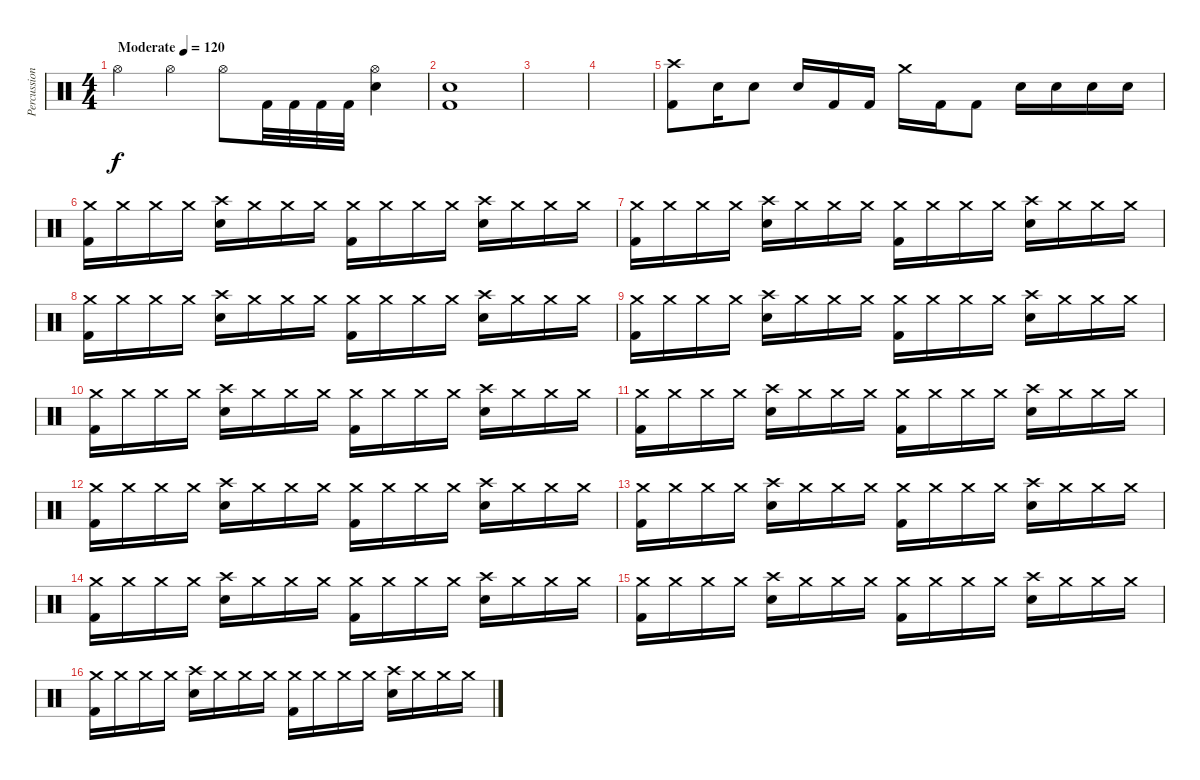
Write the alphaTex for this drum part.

\track ("Percussion" "Percussion") {instrument percussion}
\staff {score}
\articulation defaults
\ts (4 4)
\tempo (120 "Moderate")
\clef neutral
\ks c "Hi-Hat (open)".4{dy f} "Hi-Hat (open)".4 "Hi-Hat (open)".8 "Kick (hit) 2".32 "Kick (hit) 2".32 "Kick (hit) 2".32 "Kick (hit) 2".32
("Hi-Hat (open)" "Snare (hit) 2").4 |
("Snare (hit) 2" "Kick (hit) 2").1 |
|
|
("Crash high (hit)" "Kick (hit) 2").8 "Electric Snare (hit)".16 "Electric Snare (hit)".8 "Electric Snare (hit)".16 "Kick (hit) 2".16 "Kick (hit) 2".16 "Crash medium (hit)".16 "Kick (hit) 2".16 "Kick (hit) 2".8 "Electric Snare (hit)".16 "Electric Snare (hit)".16 "Electric Snare (hit)".16 "Electric Snare (hit)".16 |
("Crash medium (hit)" "Kick (hit) 2").16 "Crash medium (hit)".16 "Crash medium (hit)".16 "Crash medium (hit)".16 ("Crash high (hit)" "Electric Snare (hit)").16 "Crash medium (hit)".16 "Crash medium (hit)".16 "Crash medium (hit)".16 ("Crash medium (hit)" "Kick (hit) 2").16 "Crash medium (hit)".16 "Crash medium (hit)".16 "Crash medium (hit)".16 ("Crash high (hit)" "Electric Snare (hit)").16 "Crash medium (hit)".16 "Crash medium (hit)".16 "Crash medium (hit)".16 |
("Crash medium (hit)" "Kick (hit) 2").16 "Crash medium (hit)".16 "Crash medium (hit)".16 "Crash medium (hit)".16 ("Crash high (hit)" "Electric Snare (hit)").16 "Crash medium (hit)".16 "Crash medium (hit)".16 "Crash medium (hit)".16 ("Crash medium (hit)" "Kick (hit) 2").16 "Crash medium (hit)".16 "Crash medium (hit)".16 "Crash medium (hit)".16 ("Crash high (hit)" "Electric Snare (hit)").16 "Crash medium (hit)".16 "Crash medium (hit)".16 "Crash medium (hit)".16 |
("Crash medium (hit)" "Kick (hit) 2").16 "Crash medium (hit)".16 "Crash medium (hit)".16 "Crash medium (hit)".16 ("Crash high (hit)" "Electric Snare (hit)").16 "Crash medium (hit)".16 "Crash medium (hit)".16 "Crash medium (hit)".16 ("Crash medium (hit)" "Kick (hit) 2").16 "Crash medium (hit)".16 "Crash medium (hit)".16 "Crash medium (hit)".16 ("Crash high (hit)" "Electric Snare (hit)").16 "Crash medium (hit)".16 "Crash medium (hit)".16 "Crash medium (hit)".16 |
("Crash medium (hit)" "Kick (hit) 2").16 "Crash medium (hit)".16 "Crash medium (hit)".16 "Crash medium (hit)".16 ("Crash high (hit)" "Electric Snare (hit)").16 "Crash medium (hit)".16 "Crash medium (hit)".16 "Crash medium (hit)".16 ("Crash medium (hit)" "Kick (hit) 2").16 "Crash medium (hit)".16 "Crash medium (hit)".16 "Crash medium (hit)".16 ("Crash high (hit)" "Electric Snare (hit)").16 "Crash medium (hit)".16 "Crash medium (hit)".16 "Crash medium (hit)".16 |
("Crash medium (hit)" "Kick (hit) 2").16 "Crash medium (hit)".16 "Crash medium (hit)".16 "Crash medium (hit)".16 ("Crash high (hit)" "Electric Snare (hit)").16 "Crash medium (hit)".16 "Crash medium (hit)".16 "Crash medium (hit)".16 ("Crash medium (hit)" "Kick (hit) 2").16 "Crash medium (hit)".16 "Crash medium (hit)".16 "Crash medium (hit)".16 ("Crash high (hit)" "Electric Snare (hit)").16 "Crash medium (hit)".16 "Crash medium (hit)".16 "Crash medium (hit)".16 |
("Crash medium (hit)" "Kick (hit) 2").16 "Crash medium (hit)".16 "Crash medium (hit)".16 "Crash medium (hit)".16 ("Crash high (hit)" "Electric Snare (hit)").16 "Crash medium (hit)".16 "Crash medium (hit)".16 "Crash medium (hit)".16 ("Crash medium (hit)" "Kick (hit) 2").16 "Crash medium (hit)".16 "Crash medium (hit)".16 "Crash medium (hit)".16 ("Crash high (hit)" "Electric Snare (hit)").16 "Crash medium (hit)".16 "Crash medium (hit)".16 "Crash medium (hit)".16 |
("Crash medium (hit)" "Kick (hit) 2").16 "Crash medium (hit)".16 "Crash medium (hit)".16 "Crash medium (hit)".16 ("Crash high (hit)" "Electric Snare (hit)").16 "Crash medium (hit)".16 "Crash medium (hit)".16 "Crash medium (hit)".16 ("Crash medium (hit)" "Kick (hit) 2").16 "Crash medium (hit)".16 "Crash medium (hit)".16 "Crash medium (hit)".16 ("Crash high (hit)" "Electric Snare (hit)").16 "Crash medium (hit)".16 "Crash medium (hit)".16 "Crash medium (hit)".16 |
("Crash medium (hit)" "Kick (hit) 2").16 "Crash medium (hit)".16 "Crash medium (hit)".16 "Crash medium (hit)".16 ("Crash high (hit)" "Electric Snare (hit)").16 "Crash medium (hit)".16 "Crash medium (hit)".16 "Crash medium (hit)".16 ("Crash medium (hit)" "Kick (hit) 2").16 "Crash medium (hit)".16 "Crash medium (hit)".16 "Crash medium (hit)".16 ("Crash high (hit)" "Electric Snare (hit)").16 "Crash medium (hit)".16 "Crash medium (hit)".16 "Crash medium (hit)".16 |
("Crash medium (hit)" "Kick (hit) 2").16 "Crash medium (hit)".16 "Crash medium (hit)".16 "Crash medium (hit)".16 ("Crash high (hit)" "Electric Snare (hit)").16 "Crash medium (hit)".16 "Crash medium (hit)".16 "Crash medium (hit)".16 ("Crash medium (hit)" "Kick (hit) 2").16 "Crash medium (hit)".16 "Crash medium (hit)".16 "Crash medium (hit)".16 ("Crash high (hit)" "Electric Snare (hit)").16 "Crash medium (hit)".16 "Crash medium (hit)".16 "Crash medium (hit)".16 |
("Crash medium (hit)" "Kick (hit) 2").16 "Crash medium (hit)".16 "Crash medium (hit)".16 "Crash medium (hit)".16 ("Crash high (hit)" "Electric Snare (hit)").16 "Crash medium (hit)".16 "Crash medium (hit)".16 "Crash medium (hit)".16 ("Crash medium (hit)" "Kick (hit) 2").16 "Crash medium (hit)".16 "Crash medium (hit)".16 "Crash medium (hit)".16 ("Crash high (hit)" "Electric Snare (hit)").16 "Crash medium (hit)".16 "Crash medium (hit)".16 "Crash medium (hit)".16 |
("Crash medium (hit)" "Kick (hit) 2").16 "Crash medium (hit)".16 "Crash medium (hit)".16 "Crash medium (hit)".16 ("Crash high (hit)" "Electric Snare (hit)").16 "Crash medium (hit)".16 "Crash medium (hit)".16 "Crash medium (hit)".16 ("Crash medium (hit)" "Kick (hit) 2").16 "Crash medium (hit)".16 "Crash medium (hit)".16 "Crash medium (hit)".16 ("Crash high (hit)" "Electric Snare (hit)").16 "Crash medium (hit)".16 "Crash medium (hit)".16 "Crash medium (hit)".16
